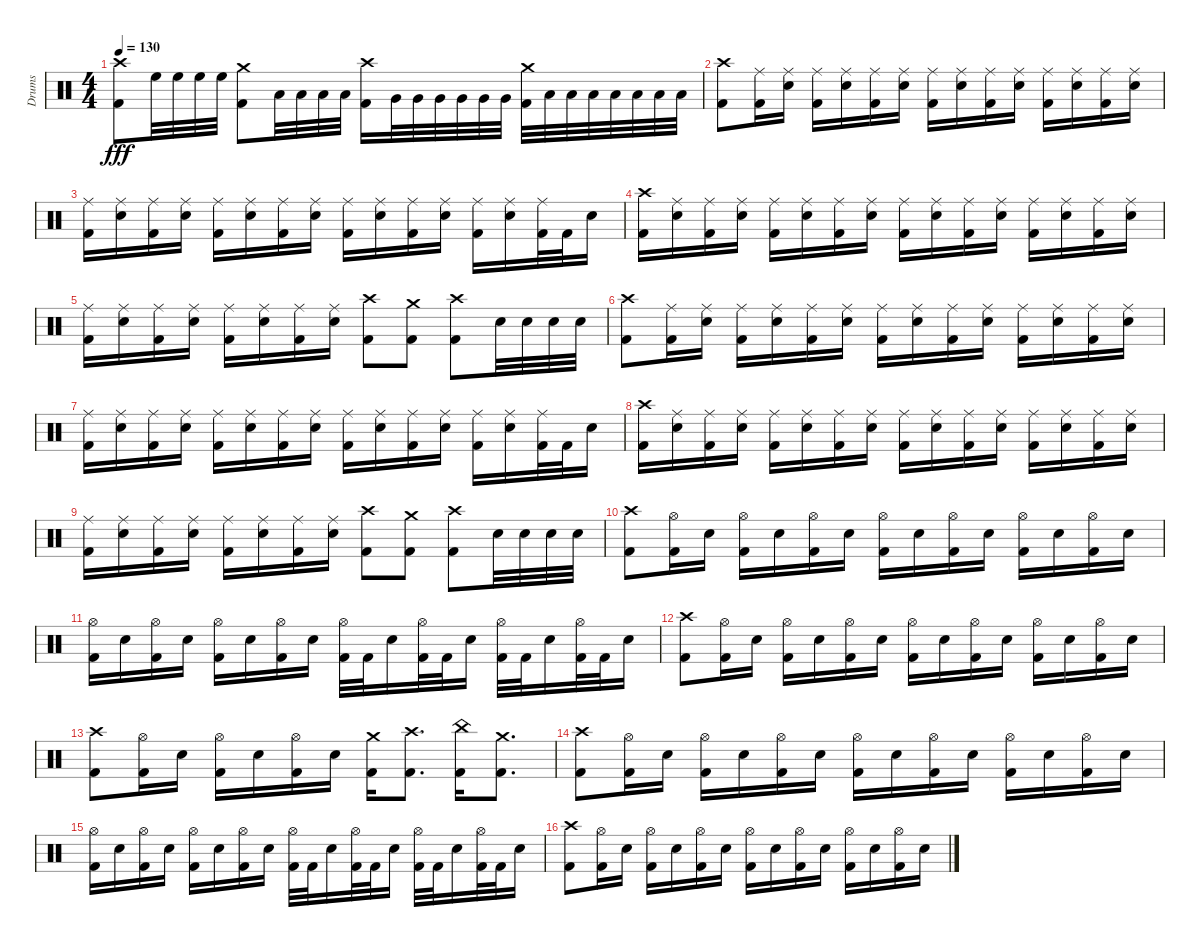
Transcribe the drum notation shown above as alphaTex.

\track ("Drums" "Drums") {instrument percussion}
\staff {score}
\articulation defaults
\ts (4 4)
\tempo 130
\clef neutral
\ks c
("Kick (hit) 2" "Crash high (hit)").8{dy fff} "High Floor Tom (hit)".32 "High Floor Tom (hit)".32 "High Floor Tom (hit)".32 "High Floor Tom (hit)".32 ("Kick (hit) 2" "Crash medium (hit)").8 "Low Tom (hit)".32 "Low Tom (hit)".32 "Low Tom (hit)".32 "Low Tom (hit)".32 ("Kick (hit) 2" "Crash high (hit)").16 "Very Low Tom (hit)".32 "Very Low Tom (hit)".32 "Very Low Tom (hit)".32 "Very Low Tom (hit)".32 "Very Low Tom (hit)".32 "Very Low Tom (hit)".32 ("Kick (hit) 2" "Crash medium (hit)").32 "Low Floor Tom (hit)".32 "Low Floor Tom (hit)".32 "Low Floor Tom (hit)".32 "Low Floor Tom (hit)".32 "Low Floor Tom (hit)".32 "Low Floor Tom (hit)".32 "Low Floor Tom (hit)".32 |
("Kick (hit) 2" "Crash high (hit)").8 ("Kick (hit) 2" "Ride (middle)").16 ("Snare (hit) 2" "Ride (middle)").16 ("Kick (hit) 2" "Ride (middle)").16 ("Snare (hit) 2" "Ride (middle)").16 ("Kick (hit) 2" "Ride (middle)").16 ("Snare (hit) 2" "Ride (middle)").16 ("Kick (hit) 2" "Ride (middle)").16 ("Snare (hit) 2" "Ride (middle)").16 ("Kick (hit) 2" "Ride (middle)").16 ("Snare (hit) 2" "Ride (middle)").16 ("Kick (hit) 2" "Ride (middle)").16 ("Snare (hit) 2" "Ride (middle)").16 ("Kick (hit) 2" "Ride (middle)").16 ("Snare (hit) 2" "Ride (middle)").16 |
("Kick (hit) 2" "Ride (middle)").16 ("Snare (hit) 2" "Ride (middle)").16 ("Kick (hit) 2" "Ride (middle)").16 ("Snare (hit) 2" "Ride (middle)").16 ("Kick (hit) 2" "Ride (middle)").16 ("Snare (hit) 2" "Ride (middle)").16 ("Kick (hit) 2" "Ride (middle)").16 ("Snare (hit) 2" "Ride (middle)").16 ("Kick (hit) 2" "Ride (middle)").16 ("Snare (hit) 2" "Ride (middle)").16 ("Kick (hit) 2" "Ride (middle)").16 ("Snare (hit) 2" "Ride (middle)").16 ("Kick (hit) 2" "Ride (middle)").16 ("Snare (hit) 2" "Ride (middle)").16 ("Kick (hit) 2" "Ride (middle)").32 "Kick (hit) 2".32 "Snare (hit) 2".16 |
("Kick (hit) 2" "Crash high (hit)").16 ("Snare (hit) 2" "Ride (middle)").16 ("Kick (hit) 2" "Ride (middle)").16 ("Snare (hit) 2" "Ride (middle)").16 ("Kick (hit) 2" "Ride (middle)").16 ("Snare (hit) 2" "Ride (middle)").16 ("Kick (hit) 2" "Ride (middle)").16 ("Snare (hit) 2" "Ride (middle)").16 ("Kick (hit) 2" "Ride (middle)").16 ("Snare (hit) 2" "Ride (middle)").16 ("Kick (hit) 2" "Ride (middle)").16 ("Snare (hit) 2" "Ride (middle)").16 ("Kick (hit) 2" "Ride (middle)").16 ("Snare (hit) 2" "Ride (middle)").16 ("Kick (hit) 2" "Ride (middle)").16 ("Snare (hit) 2" "Ride (middle)").16 |
("Kick (hit) 2" "Ride (middle)").16 ("Snare (hit) 2" "Ride (middle)").16 ("Kick (hit) 2" "Ride (middle)").16 ("Snare (hit) 2" "Ride (middle)").16 ("Kick (hit) 2" "Ride (middle)").16 ("Snare (hit) 2" "Ride (middle)").16 ("Kick (hit) 2" "Ride (middle)").16 ("Snare (hit) 2" "Ride (middle)").16 ("Kick (hit) 2" "Crash high (hit)").8 ("Kick (hit) 2" "Crash medium (hit)").8 ("Kick (hit) 2" "Crash high (hit)").8 "Snare (hit) 2".32 "Snare (hit) 2".32 "Snare (hit) 2".32 "Snare (hit) 2".32 |
("Kick (hit) 2" "Crash high (hit)").8 ("Kick (hit) 2" "Ride (middle)").16 ("Snare (hit) 2" "Ride (middle)").16 ("Kick (hit) 2" "Ride (middle)").16 ("Snare (hit) 2" "Ride (middle)").16 ("Kick (hit) 2" "Ride (middle)").16 ("Snare (hit) 2" "Ride (middle)").16 ("Kick (hit) 2" "Ride (middle)").16 ("Snare (hit) 2" "Ride (middle)").16 ("Kick (hit) 2" "Ride (middle)").16 ("Snare (hit) 2" "Ride (middle)").16 ("Kick (hit) 2" "Ride (middle)").16 ("Snare (hit) 2" "Ride (middle)").16 ("Kick (hit) 2" "Ride (middle)").16 ("Snare (hit) 2" "Ride (middle)").16 |
("Kick (hit) 2" "Ride (middle)").16 ("Snare (hit) 2" "Ride (middle)").16 ("Kick (hit) 2" "Ride (middle)").16 ("Snare (hit) 2" "Ride (middle)").16 ("Kick (hit) 2" "Ride (middle)").16 ("Snare (hit) 2" "Ride (middle)").16 ("Kick (hit) 2" "Ride (middle)").16 ("Snare (hit) 2" "Ride (middle)").16 ("Kick (hit) 2" "Ride (middle)").16 ("Snare (hit) 2" "Ride (middle)").16 ("Kick (hit) 2" "Ride (middle)").16 ("Snare (hit) 2" "Ride (middle)").16 ("Kick (hit) 2" "Ride (middle)").16 ("Snare (hit) 2" "Ride (middle)").16 ("Kick (hit) 2" "Ride (middle)").32 "Kick (hit) 2".32 "Snare (hit) 2".16 |
("Kick (hit) 2" "Crash high (hit)").16 ("Snare (hit) 2" "Ride (middle)").16 ("Kick (hit) 2" "Ride (middle)").16 ("Snare (hit) 2" "Ride (middle)").16 ("Kick (hit) 2" "Ride (middle)").16 ("Snare (hit) 2" "Ride (middle)").16 ("Kick (hit) 2" "Ride (middle)").16 ("Snare (hit) 2" "Ride (middle)").16 ("Kick (hit) 2" "Ride (middle)").16 ("Snare (hit) 2" "Ride (middle)").16 ("Kick (hit) 2" "Ride (middle)").16 ("Snare (hit) 2" "Ride (middle)").16 ("Kick (hit) 2" "Ride (middle)").16 ("Snare (hit) 2" "Ride (middle)").16 ("Kick (hit) 2" "Ride (middle)").16 ("Snare (hit) 2" "Ride (middle)").16 |
("Kick (hit) 2" "Ride (middle)").16 ("Snare (hit) 2" "Ride (middle)").16 ("Kick (hit) 2" "Ride (middle)").16 ("Snare (hit) 2" "Ride (middle)").16 ("Kick (hit) 2" "Ride (middle)").16 ("Snare (hit) 2" "Ride (middle)").16 ("Kick (hit) 2" "Ride (middle)").16 ("Snare (hit) 2" "Ride (middle)").16 ("Kick (hit) 2" "Crash high (hit)").8 ("Kick (hit) 2" "Crash medium (hit)").8 ("Kick (hit) 2" "Crash high (hit)").8 "Snare (hit) 2".32 "Snare (hit) 2".32 "Snare (hit) 2".32 "Snare (hit) 2".32 |
("Kick (hit) 2" "Crash high (hit)").8 ("Kick (hit) 2" "Hi-Hat (open)").16 "Snare (hit) 2".16 ("Kick (hit) 2" "Hi-Hat (open)").16 "Snare (hit) 2".16 ("Kick (hit) 2" "Hi-Hat (open)").16 "Snare (hit) 2".16 ("Kick (hit) 2" "Hi-Hat (open)").16 "Snare (hit) 2".16 ("Kick (hit) 2" "Hi-Hat (open)").16 "Snare (hit) 2".16 ("Kick (hit) 2" "Hi-Hat (open)").16 "Snare (hit) 2".16 ("Kick (hit) 2" "Hi-Hat (open)").16 "Snare (hit) 2".16 |
("Kick (hit) 2" "Hi-Hat (open)").16 "Snare (hit) 2".16 ("Kick (hit) 2" "Hi-Hat (open)").16 "Snare (hit) 2".16 ("Kick (hit) 2" "Hi-Hat (open)").16 "Snare (hit) 2".16 ("Kick (hit) 2" "Hi-Hat (open)").16 "Snare (hit) 2".16 ("Kick (hit) 2" "Hi-Hat (open)").32 "Kick (hit) 2".32 "Snare (hit) 2".16 ("Kick (hit) 2" "Hi-Hat (open)").32 "Kick (hit) 2".32 "Snare (hit) 2".16 ("Kick (hit) 2" "Hi-Hat (open)").32 "Kick (hit) 2".32 "Snare (hit) 2".16 ("Kick (hit) 2" "Hi-Hat (open)").32 "Kick (hit) 2".32 "Snare (hit) 2".16 |
("Kick (hit) 2" "Crash high (hit)").8 ("Kick (hit) 2" "Hi-Hat (open)").16 "Snare (hit) 2".16 ("Kick (hit) 2" "Hi-Hat (open)").16 "Snare (hit) 2".16 ("Kick (hit) 2" "Hi-Hat (open)").16 "Snare (hit) 2".16 ("Kick (hit) 2" "Hi-Hat (open)").16 "Snare (hit) 2".16 ("Kick (hit) 2" "Hi-Hat (open)").16 "Snare (hit) 2".16 ("Kick (hit) 2" "Hi-Hat (open)").16 "Snare (hit) 2".16 ("Kick (hit) 2" "Hi-Hat (open)").16 "Snare (hit) 2".16 |
("Kick (hit) 2" "Crash high (hit)").8 ("Kick (hit) 2" "Hi-Hat (open)").16 "Snare (hit) 2".16 ("Kick (hit) 2" "Hi-Hat (open)").16 "Snare (hit) 2".16 ("Kick (hit) 2" "Hi-Hat (open)").16 "Snare (hit) 2".16 ("Kick (hit) 2" "Crash medium (hit)").16 ("Kick (hit) 2" "Crash high (hit)").8{d} ("Kick (hit) 2" "China (hit)").16 ("Kick (hit) 2" "Crash medium (hit)").8{d} |
("Kick (hit) 2" "Crash high (hit)").8 ("Kick (hit) 2" "Hi-Hat (open)").16 "Snare (hit) 2".16 ("Kick (hit) 2" "Hi-Hat (open)").16 "Snare (hit) 2".16 ("Kick (hit) 2" "Hi-Hat (open)").16 "Snare (hit) 2".16 ("Kick (hit) 2" "Hi-Hat (open)").16 "Snare (hit) 2".16 ("Kick (hit) 2" "Hi-Hat (open)").16 "Snare (hit) 2".16 ("Kick (hit) 2" "Hi-Hat (open)").16 "Snare (hit) 2".16 ("Kick (hit) 2" "Hi-Hat (open)").16 "Snare (hit) 2".16 |
("Kick (hit) 2" "Hi-Hat (open)").16 "Snare (hit) 2".16 ("Kick (hit) 2" "Hi-Hat (open)").16 "Snare (hit) 2".16 ("Kick (hit) 2" "Hi-Hat (open)").16 "Snare (hit) 2".16 ("Kick (hit) 2" "Hi-Hat (open)").16 "Snare (hit) 2".16 ("Kick (hit) 2" "Hi-Hat (open)").32 "Kick (hit) 2".32 "Snare (hit) 2".16 ("Kick (hit) 2" "Hi-Hat (open)").32 "Kick (hit) 2".32 "Snare (hit) 2".16 ("Kick (hit) 2" "Hi-Hat (open)").32 "Kick (hit) 2".32 "Snare (hit) 2".16 ("Kick (hit) 2" "Hi-Hat (open)").32 "Kick (hit) 2".32 "Snare (hit) 2".16 |
("Kick (hit) 2" "Crash high (hit)").8 ("Kick (hit) 2" "Hi-Hat (open)").16 "Snare (hit) 2".16 ("Kick (hit) 2" "Hi-Hat (open)").16 "Snare (hit) 2".16 ("Kick (hit) 2" "Hi-Hat (open)").16 "Snare (hit) 2".16 ("Kick (hit) 2" "Hi-Hat (open)").16 "Snare (hit) 2".16 ("Kick (hit) 2" "Hi-Hat (open)").16 "Snare (hit) 2".16 ("Kick (hit) 2" "Hi-Hat (open)").16 "Snare (hit) 2".16 ("Kick (hit) 2" "Hi-Hat (open)").16 "Snare (hit) 2".16
